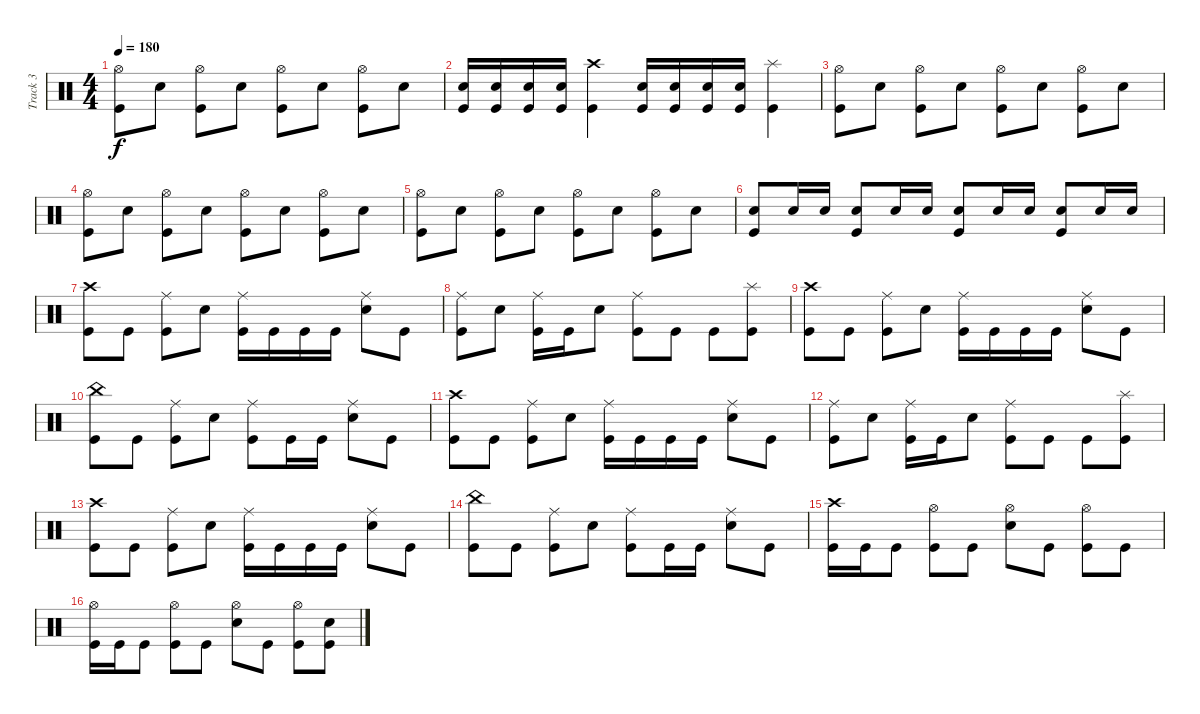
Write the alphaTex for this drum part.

\track ("Track 3" "Track 3") {instrument percussion}
\staff {score}
\articulation defaults
\ts (4 4)
\tempo 180
\clef neutral
\ks c
("Hi-Hat (open)" "Kick (hit)").8{dy f} "Electric Snare (hit)".8 ("Hi-Hat (open)" "Kick (hit)").8 "Electric Snare (hit)".8 ("Hi-Hat (open)" "Kick (hit)").8 "Electric Snare (hit)".8 ("Hi-Hat (open)" "Kick (hit)").8 "Electric Snare (hit)".8 |
("Electric Snare (hit)" "Kick (hit)").16 ("Electric Snare (hit)" "Kick (hit)").16 ("Electric Snare (hit)" "Kick (hit)").16 ("Electric Snare (hit)" "Kick (hit)").16 ("Crash high (hit)" "Kick (hit)").4 ("Electric Snare (hit)" "Kick (hit)").16 ("Electric Snare (hit)" "Kick (hit)").16 ("Electric Snare (hit)" "Kick (hit)").16 ("Electric Snare (hit)" "Kick (hit)").16 ("Splash (hit)" "Kick (hit)").4 |
("Hi-Hat (open)" "Kick (hit)").8 "Electric Snare (hit)".8 ("Hi-Hat (open)" "Kick (hit)").8 "Electric Snare (hit)".8 ("Hi-Hat (open)" "Kick (hit)").8 "Electric Snare (hit)".8 ("Hi-Hat (open)" "Kick (hit)").8 "Electric Snare (hit)".8 |
("Hi-Hat (open)" "Kick (hit)").8 "Electric Snare (hit)".8 ("Hi-Hat (open)" "Kick (hit)").8 "Electric Snare (hit)".8 ("Hi-Hat (open)" "Kick (hit)").8 "Electric Snare (hit)".8 ("Hi-Hat (open)" "Kick (hit)").8 "Electric Snare (hit)".8 |
("Hi-Hat (open)" "Kick (hit)").8 "Electric Snare (hit)".8 ("Hi-Hat (open)" "Kick (hit)").8 "Electric Snare (hit)".8 ("Hi-Hat (open)" "Kick (hit)").8 "Electric Snare (hit)".8 ("Hi-Hat (open)" "Kick (hit)").8 "Electric Snare (hit)".8 |
("Electric Snare (hit)" "Kick (hit)").8 "Electric Snare (hit)".16 "Electric Snare (hit)".16 ("Electric Snare (hit)" "Kick (hit)").8 "Electric Snare (hit)".16 "Electric Snare (hit)".16 ("Electric Snare (hit)" "Kick (hit)").8 "Electric Snare (hit)".16 "Electric Snare (hit)".16 ("Electric Snare (hit)" "Kick (hit)").8 "Electric Snare (hit)".16 "Electric Snare (hit)".16 |
("Crash high (hit)" "Kick (hit)").8 "Kick (hit)".8 ("Ride (middle)" "Kick (hit)").8 "Electric Snare (hit)".8 ("Ride (middle)" "Kick (hit)").16 "Kick (hit)".16 "Kick (hit)".16 "Kick (hit)".16 ("Ride (middle)" "Electric Snare (hit)").8 "Kick (hit)".8 |
("Ride (middle)" "Kick (hit)").8 "Electric Snare (hit)".8 ("Ride (middle)" "Kick (hit)").16 "Kick (hit)".16 "Electric Snare (hit)".8 ("Ride (middle)" "Kick (hit)").8 "Kick (hit)".8 "Kick (hit)".8 ("Splash (hit)" "Kick (hit)").8 |
("Crash high (hit)" "Kick (hit)").8 "Kick (hit)".8 ("Ride (middle)" "Kick (hit)").8 "Electric Snare (hit)".8 ("Ride (middle)" "Kick (hit)").16 "Kick (hit)".16 "Kick (hit)".16 "Kick (hit)".16 ("Ride (middle)" "Electric Snare (hit)").8 "Kick (hit)".8 |
("China (hit)" "Kick (hit)").8 "Kick (hit)".8 ("Ride (middle)" "Kick (hit)").8 "Electric Snare (hit)".8 ("Ride (middle)" "Kick (hit)").8 "Kick (hit)".16 "Kick (hit)".16 ("Ride (middle)" "Electric Snare (hit)").8 "Kick (hit)".8 |
("Crash high (hit)" "Kick (hit)").8 "Kick (hit)".8 ("Ride (middle)" "Kick (hit)").8 "Electric Snare (hit)".8 ("Ride (middle)" "Kick (hit)").16 "Kick (hit)".16 "Kick (hit)".16 "Kick (hit)".16 ("Ride (middle)" "Electric Snare (hit)").8 "Kick (hit)".8 |
("Ride (middle)" "Kick (hit)").8 "Electric Snare (hit)".8 ("Ride (middle)" "Kick (hit)").16 "Kick (hit)".16 "Electric Snare (hit)".8 ("Ride (middle)" "Kick (hit)").8 "Kick (hit)".8 "Kick (hit)".8 ("Splash (hit)" "Kick (hit)").8 |
("Crash high (hit)" "Kick (hit)").8 "Kick (hit)".8 ("Ride (middle)" "Kick (hit)").8 "Electric Snare (hit)".8 ("Ride (middle)" "Kick (hit)").16 "Kick (hit)".16 "Kick (hit)".16 "Kick (hit)".16 ("Ride (middle)" "Electric Snare (hit)").8 "Kick (hit)".8 |
("China (hit)" "Kick (hit)").8 "Kick (hit)".8 ("Ride (middle)" "Kick (hit)").8 "Electric Snare (hit)".8 ("Ride (middle)" "Kick (hit)").8 "Kick (hit)".16 "Kick (hit)".16 ("Ride (middle)" "Electric Snare (hit)").8 "Kick (hit)".8 |
("Crash high (hit)" "Kick (hit)").16 "Kick (hit)".16 "Kick (hit)".8 ("Hi-Hat (open)" "Kick (hit)").8 "Kick (hit)".8 ("Hi-Hat (open)" "Electric Snare (hit)").8 "Kick (hit)".8 ("Hi-Hat (open)" "Kick (hit)").8 "Kick (hit)".8 |
("Hi-Hat (open)" "Kick (hit)").16 "Kick (hit)".16 "Kick (hit)".8 ("Hi-Hat (open)" "Kick (hit)").8 "Kick (hit)".8 ("Hi-Hat (open)" "Electric Snare (hit)").8 "Kick (hit)".8 ("Hi-Hat (open)" "Kick (hit)").8 ("Electric Snare (hit)" "Kick (hit)").8
